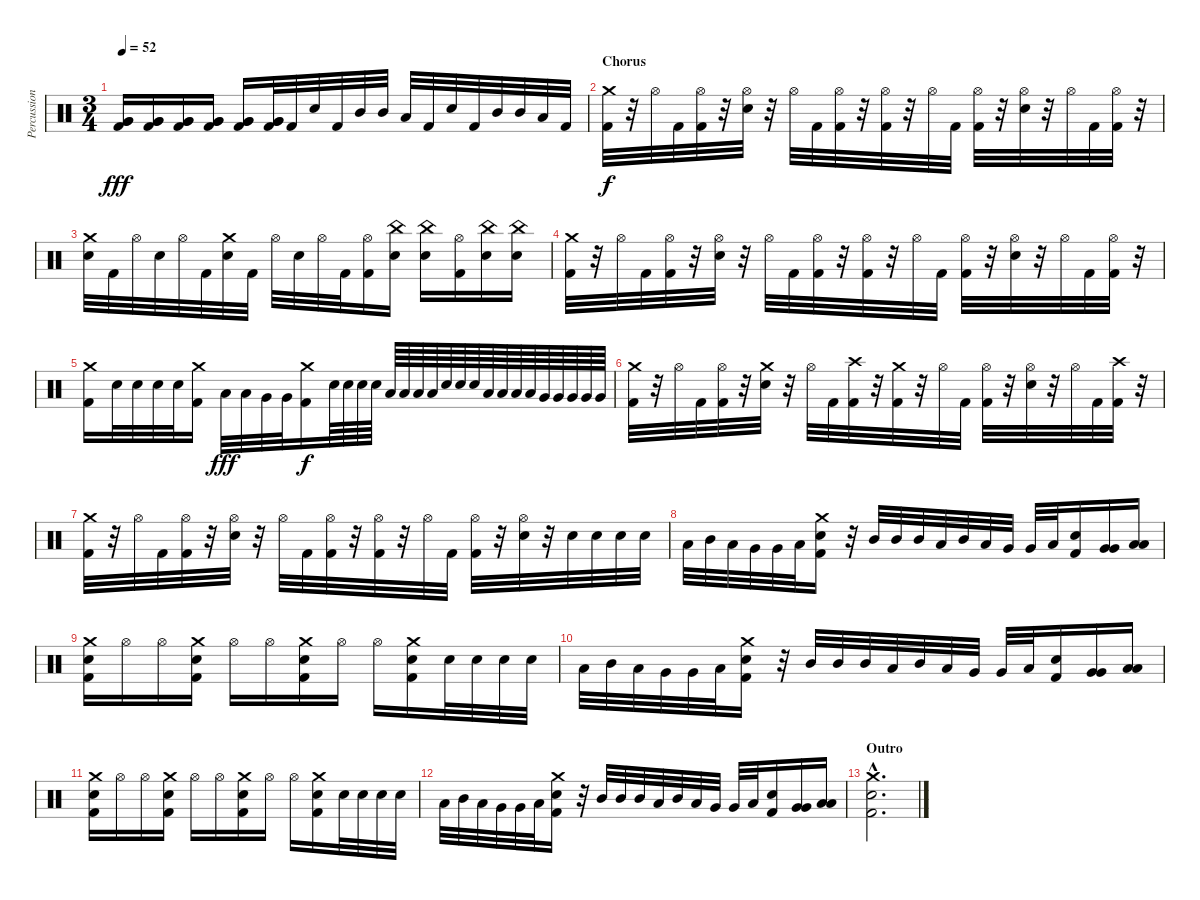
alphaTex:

\track ("Percussion" "Percussion") {instrument percussion}
\staff {score}
\articulation defaults
\ts (3 4)
\tempo 52
\clef neutral
\ks c
("Very Low Tom (hit)" "Very Low Tom (hit)" "Kick (hit) 2").16{dy fff} ("Very Low Tom (hit)" "Very Low Tom (hit)" "Kick (hit) 2").16 ("Very Low Tom (hit)" "Very Low Tom (hit)" "Kick (hit) 2").16 ("Very Low Tom (hit)" "Very Low Tom (hit)" "Kick (hit) 2").16 ("Very Low Tom (hit)" "Very Low Tom (hit)" "Kick (hit) 2").16 ("Very Low Tom (hit)" "Very Low Tom (hit)" "Kick (hit) 2").32 "Kick (hit) 2".32 "Snare (hit) 2".32 "Kick (hit) 2".32 "Mid Tom (hit)".32 "Mid Tom (hit)".32 "Low Tom (hit)".32 "Kick (hit) 2".32 "Snare (hit) 2".32 "Kick (hit) 2".32 "Mid Tom (hit)".32 "Mid Tom (hit)".32 "Low Tom (hit)".32 "Kick (hit) 2".32 |
\section ("" "Chorus")
("Crash medium (hit)" "Kick (hit) 2").32{dy f} r.32 "Hi-Hat (open)".32 "Kick (hit) 2".32 ("Hi-Hat (open)" "Kick (hit) 2").32 r.32 ("Hi-Hat (open)" "Snare (hit) 2").32 r.32 "Hi-Hat (open)".32 "Kick (hit) 2".32 ("Hi-Hat (open)" "Kick (hit) 2").32 r.32 ("Hi-Hat (open)" "Kick (hit) 2").32 r.32 "Hi-Hat (open)".32 "Kick (hit) 2".32 ("Hi-Hat (open)" "Kick (hit) 2").32 r.32 ("Hi-Hat (open)" "Snare (hit) 2").32 r.32 "Hi-Hat (open)".32 "Kick (hit) 2".32 ("Hi-Hat (open)" "Kick (hit) 2").32 r.32 |
("Crash medium (hit)" "Snare (hit) 2").32 "Kick (hit) 2".32 "Hi-Hat (open)".32 "Snare (hit) 2".32 "Hi-Hat (open)".32 "Kick (hit) 2".32 ("Crash medium (hit)" "Snare (hit) 2").32 "Kick (hit) 2".32 "Hi-Hat (open)".32 "Snare (hit) 2".32 "Hi-Hat (open)".32 "Kick (hit) 2".32 ("Hi-Hat (open)" "Kick (hit) 2").16 ("China (hit)" "Snare (hit) 2").16 ("China (hit)" "Snare (hit) 2").16 ("Hi-Hat (open)" "Kick (hit) 2").16 ("China (hit)" "Snare (hit) 2").16 ("China (hit)" "Snare (hit) 2").16 |
("Crash medium (hit)" "Kick (hit) 2").32 r.32 "Hi-Hat (open)".32 "Kick (hit) 2".32 ("Hi-Hat (open)" "Kick (hit) 2").32 r.32 ("Hi-Hat (open)" "Snare (hit) 2").32 r.32 "Hi-Hat (open)".32 "Kick (hit) 2".32 ("Hi-Hat (open)" "Kick (hit) 2").32 r.32 ("Hi-Hat (open)" "Kick (hit) 2").32 r.32 "Hi-Hat (open)".32 "Kick (hit) 2".32 ("Hi-Hat (open)" "Kick (hit) 2").32 r.32 ("Hi-Hat (open)" "Snare (hit) 2").32 r.32 "Hi-Hat (open)".32 "Kick (hit) 2".32 ("Hi-Hat (open)" "Kick (hit) 2").32 r.32 |
("Crash medium (hit)" "Kick (hit) 2").16 "Snare (hit) 2".32 "Snare (hit) 2".32 "Snare (hit) 2".32 "Snare (hit) 2".32 ("Crash medium (hit)" "Kick (hit) 2").16 "Low Tom (hit)".32{dy fff} "Low Tom (hit)".32 "Very Low Tom (hit)".32 "Very Low Tom (hit)".32 ("Crash medium (hit)" "Kick (hit) 2").16{dy f} "Snare (hit) 2".64 "Snare (hit) 2".64 "Snare (hit) 2".64 "Snare (hit) 2".64 "Low Tom (hit)".64 "Low Tom (hit)".64 "Low Tom (hit)".64 "Low Tom (hit)".64 "Snare (hit) 2".64 "Snare (hit) 2".64 "Snare (hit) 2".64 "Low Tom (hit)".64 "Low Tom (hit)".64 "Low Tom (hit)".64 "Low Tom (hit)".64 "Very Low Tom (hit)".64 "Very Low Tom (hit)".64 "Very Low Tom (hit)".64 "Very Low Tom (hit)".64 "Very Low Tom (hit)".64 |
("Crash medium (hit)" "Kick (hit) 2").32 r.32 "Hi-Hat (open)".32 "Kick (hit) 2".32 ("Hi-Hat (open)" "Kick (hit) 2").32 r.32 ("Crash medium (hit)" "Snare (hit) 2").32 r.32 "Hi-Hat (open)".32 "Kick (hit) 2".32 ("Crash high (hit)" "Kick (hit) 2").32 r.32 ("Crash medium (hit)" "Kick (hit) 2").32 r.32 "Hi-Hat (open)".32 "Kick (hit) 2".32 ("Hi-Hat (open)" "Kick (hit) 2").32 r.32 ("Hi-Hat (open)" "Snare (hit) 2").32 r.32 "Hi-Hat (open)".32 "Kick (hit) 2".32 ("Crash high (hit)" "Kick (hit) 2").32 r.32 |
("Crash medium (hit)" "Kick (hit) 2").32 r.32 "Hi-Hat (open)".32 "Kick (hit) 2".32 ("Hi-Hat (open)" "Kick (hit) 2").32 r.32 ("Hi-Hat (open)" "Snare (hit) 2").32 r.32 "Hi-Hat (open)".32 "Kick (hit) 2".32 ("Hi-Hat (open)" "Kick (hit) 2").32 r.32 ("Hi-Hat (open)" "Kick (hit) 2").32 r.32 "Hi-Hat (open)".32 "Kick (hit) 2".32 ("Hi-Hat (open)" "Kick (hit) 2").32 r.32 ("Hi-Hat (open)" "Snare (hit) 2").32 r.32 "Snare (hit) 2".32 "Snare (hit) 2".32 "Snare (hit) 2".32 "Snare (hit) 2".32 |
"Low Tom (hit)".32 "Mid Tom (hit)".32 "Low Tom (hit)".32 "Very Low Tom (hit)".32 "Very Low Tom (hit)".32 "Low Floor Tom (hit)".32 ("Crash medium (hit)" "Snare (hit) 2" "Kick (hit) 2").16 r.32 "Mid Tom (hit)".32 "Mid Tom (hit)".32 "Mid Tom (hit)".32 "Low Tom (hit)".32 "Mid Tom (hit)".32 "Low Tom (hit)".32 "Very Low Tom (hit)".32 "Very Low Tom (hit)".32 "Low Floor Tom (hit)".32 ("Snare (hit) 2" "Kick (hit) 2").16 ("Very Low Tom (hit)" "Very Low Tom (hit)").16 ("Low Tom (hit)" "Low Tom (hit)").16 |
("Crash medium (hit)" "Snare (hit) 2" "Kick (hit) 2").16 "Hi-Hat (open)".16 "Hi-Hat (open)".16 ("Crash medium (hit)" "Snare (hit) 2" "Kick (hit) 2").16 "Hi-Hat (open)".16 "Hi-Hat (open)".16 ("Crash medium (hit)" "Snare (hit) 2" "Kick (hit) 2").16 "Hi-Hat (open)".16 "Hi-Hat (open)".16 ("Crash medium (hit)" "Snare (hit) 2" "Kick (hit) 2").16 "Snare (hit) 2".32 "Snare (hit) 2".32 "Snare (hit) 2".32 "Snare (hit) 2".32 |
"Low Tom (hit)".32 "Mid Tom (hit)".32 "Low Tom (hit)".32 "Very Low Tom (hit)".32 "Very Low Tom (hit)".32 "Low Floor Tom (hit)".32 ("Crash medium (hit)" "Snare (hit) 2" "Kick (hit) 2").16 r.32 "Mid Tom (hit)".32 "Mid Tom (hit)".32 "Mid Tom (hit)".32 "Low Tom (hit)".32 "Mid Tom (hit)".32 "Low Tom (hit)".32 "Very Low Tom (hit)".32 "Very Low Tom (hit)".32 "Low Floor Tom (hit)".32 ("Snare (hit) 2" "Kick (hit) 2").16 ("Very Low Tom (hit)" "Very Low Tom (hit)").16 ("Low Tom (hit)" "Low Tom (hit)").16 |
("Crash medium (hit)" "Snare (hit) 2" "Kick (hit) 2").16 "Hi-Hat (open)".16 "Hi-Hat (open)".16 ("Crash medium (hit)" "Snare (hit) 2" "Kick (hit) 2").16 "Hi-Hat (open)".16 "Hi-Hat (open)".16 ("Crash medium (hit)" "Snare (hit) 2" "Kick (hit) 2").16 "Hi-Hat (open)".16 "Hi-Hat (open)".16 ("Crash medium (hit)" "Snare (hit) 2" "Kick (hit) 2").16 "Snare (hit) 2".32 "Snare (hit) 2".32 "Snare (hit) 2".32 "Snare (hit) 2".32 |
"Low Tom (hit)".32 "Mid Tom (hit)".32 "Low Tom (hit)".32 "Very Low Tom (hit)".32 "Very Low Tom (hit)".32 "Low Floor Tom (hit)".32 ("Crash medium (hit)" "Snare (hit) 2" "Kick (hit) 2").16 r.32 "Mid Tom (hit)".32 "Mid Tom (hit)".32 "Mid Tom (hit)".32 "Low Tom (hit)".32 "Mid Tom (hit)".32 "Low Tom (hit)".32 "Very Low Tom (hit)".32 "Very Low Tom (hit)".32 "Low Floor Tom (hit)".32 ("Snare (hit) 2" "Kick (hit) 2").16 ("Very Low Tom (hit)" "Very Low Tom (hit)").16 ("Low Tom (hit)" "Low Tom (hit)").16 |
\section ("" "Outro")
("Crash medium (hit)"{hac} "Snare (hit) 2"{hac} "Kick (hit) 2"{hac}).2{d}
